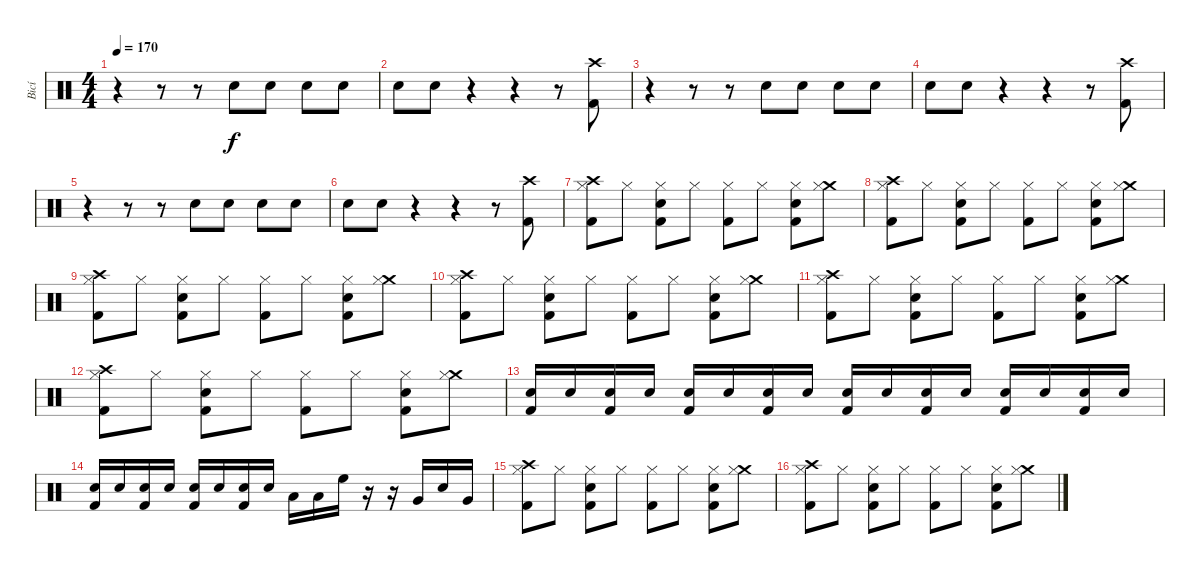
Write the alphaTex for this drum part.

\track ("Bicí" "Bicí") {instrument percussion}
\staff {score}
\articulation defaults
\ts (4 4)
\tempo 170
\clef neutral
\ks c
r.4{dy f} r.8 r.8 "Snare (hit) 2".8 "Snare (hit) 2".8 "Snare (hit) 2".8 "Snare (hit) 2".8 |
"Snare (hit) 2".8 "Snare (hit) 2".8 r.4 r.4 r.8 ("Crash high (hit)" "Kick (hit) 2").8 |
r.4 r.8 r.8 "Snare (hit) 2".8 "Snare (hit) 2".8 "Snare (hit) 2".8 "Snare (hit) 2".8 |
"Snare (hit) 2".8 "Snare (hit) 2".8 r.4 r.4 r.8 ("Crash high (hit)" "Kick (hit) 2").8 |
r.4 r.8 r.8 "Snare (hit) 2".8 "Snare (hit) 2".8 "Snare (hit) 2".8 "Snare (hit) 2".8 |
"Snare (hit) 2".8 "Snare (hit) 2".8 r.4 r.4 r.8 ("Crash high (hit)" "Kick (hit) 2").8 |
("Crash high (hit)" "Hi-Hat (closed)" "Kick (hit) 2").8 "Hi-Hat (closed)".8 ("Hi-Hat (closed)" "Snare (hit) 2" "Kick (hit) 2").8 "Hi-Hat (closed)".8 ("Hi-Hat (closed)" "Kick (hit) 2").8 "Hi-Hat (closed)".8 ("Hi-Hat (closed)" "Snare (hit) 2" "Kick (hit) 2").8 ("Crash medium (hit)" "Hi-Hat (closed)").8 |
("Crash high (hit)" "Hi-Hat (closed)" "Kick (hit) 2").8 "Hi-Hat (closed)".8 ("Hi-Hat (closed)" "Snare (hit) 2" "Kick (hit) 2").8 "Hi-Hat (closed)".8 ("Hi-Hat (closed)" "Kick (hit) 2").8 "Hi-Hat (closed)".8 ("Hi-Hat (closed)" "Snare (hit) 2" "Kick (hit) 2").8 ("Crash medium (hit)" "Hi-Hat (closed)").8 |
("Crash high (hit)" "Hi-Hat (closed)" "Kick (hit) 2").8 "Hi-Hat (closed)".8 ("Hi-Hat (closed)" "Snare (hit) 2" "Kick (hit) 2").8 "Hi-Hat (closed)".8 ("Hi-Hat (closed)" "Kick (hit) 2").8 "Hi-Hat (closed)".8 ("Hi-Hat (closed)" "Snare (hit) 2" "Kick (hit) 2").8 ("Crash medium (hit)" "Hi-Hat (closed)").8 |
("Crash high (hit)" "Hi-Hat (closed)" "Kick (hit) 2").8 "Hi-Hat (closed)".8 ("Hi-Hat (closed)" "Snare (hit) 2" "Kick (hit) 2").8 "Hi-Hat (closed)".8 ("Hi-Hat (closed)" "Kick (hit) 2").8 "Hi-Hat (closed)".8 ("Hi-Hat (closed)" "Snare (hit) 2" "Kick (hit) 2").8 ("Crash medium (hit)" "Hi-Hat (closed)").8 |
("Crash high (hit)" "Hi-Hat (closed)" "Kick (hit) 2").8 "Hi-Hat (closed)".8 ("Hi-Hat (closed)" "Snare (hit) 2" "Kick (hit) 2").8 "Hi-Hat (closed)".8 ("Hi-Hat (closed)" "Kick (hit) 2").8 "Hi-Hat (closed)".8 ("Hi-Hat (closed)" "Snare (hit) 2" "Kick (hit) 2").8 ("Crash medium (hit)" "Hi-Hat (closed)").8 |
("Crash high (hit)" "Hi-Hat (closed)" "Kick (hit) 2").8 "Hi-Hat (closed)".8 ("Hi-Hat (closed)" "Snare (hit) 2" "Kick (hit) 2").8 "Hi-Hat (closed)".8 ("Hi-Hat (closed)" "Kick (hit) 2").8 "Hi-Hat (closed)".8 ("Hi-Hat (closed)" "Snare (hit) 2" "Kick (hit) 2").8 ("Crash medium (hit)" "Hi-Hat (closed)").8 |
("Snare (hit) 2" "Kick (hit) 2").16 "Snare (hit) 2".16 ("Snare (hit) 2" "Kick (hit) 2").16 "Snare (hit) 2".16 ("Snare (hit) 2" "Kick (hit) 2").16 "Snare (hit) 2".16 ("Snare (hit) 2" "Kick (hit) 2").16 "Snare (hit) 2".16 ("Snare (hit) 2" "Kick (hit) 2").16 "Snare (hit) 2".16 ("Snare (hit) 2" "Kick (hit) 2").16 "Snare (hit) 2".16 ("Snare (hit) 2" "Kick (hit) 2").16 "Snare (hit) 2".16 ("Snare (hit) 2" "Kick (hit) 2").16 "Snare (hit) 2".16 |
("Snare (hit) 2" "Kick (hit) 2").16 "Snare (hit) 2".16 ("Snare (hit) 2" "Kick (hit) 2").16 "Snare (hit) 2".16 ("Snare (hit) 2" "Kick (hit) 2").16 "Snare (hit) 2".16 ("Snare (hit) 2" "Kick (hit) 2").16 "Snare (hit) 2".16 "Low Tom (hit)".16 "Low Tom (hit)".16 "High Floor Tom (hit)".16 r.16 r.16 "Very Low Tom (hit)".16 "Snare (hit) 2".16 "Very Low Tom (hit)".16 |
("Crash high (hit)" "Hi-Hat (closed)" "Kick (hit) 2").8 "Hi-Hat (closed)".8 ("Hi-Hat (closed)" "Snare (hit) 2" "Kick (hit) 2").8 "Hi-Hat (closed)".8 ("Hi-Hat (closed)" "Kick (hit) 2").8 "Hi-Hat (closed)".8 ("Hi-Hat (closed)" "Snare (hit) 2" "Kick (hit) 2").8 ("Crash medium (hit)" "Hi-Hat (closed)").8 |
("Crash high (hit)" "Hi-Hat (closed)" "Kick (hit) 2").8 "Hi-Hat (closed)".8 ("Hi-Hat (closed)" "Snare (hit) 2" "Kick (hit) 2").8 "Hi-Hat (closed)".8 ("Hi-Hat (closed)" "Kick (hit) 2").8 "Hi-Hat (closed)".8 ("Hi-Hat (closed)" "Snare (hit) 2" "Kick (hit) 2").8 ("Crash medium (hit)" "Hi-Hat (closed)").8
